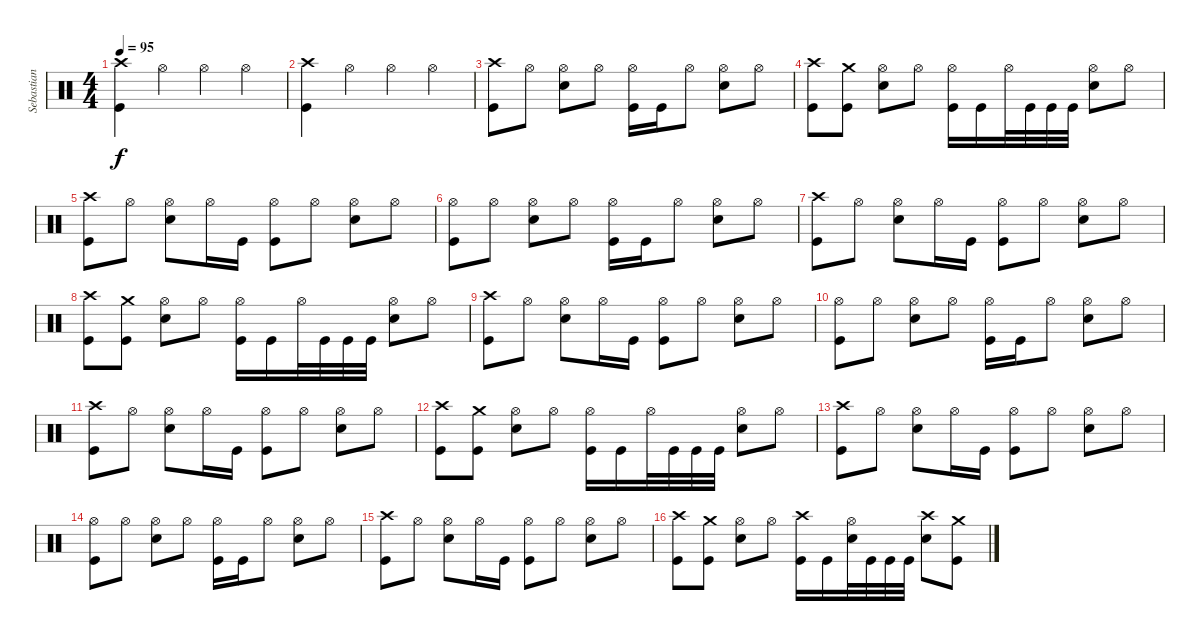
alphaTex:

\track ("Sebastian" "Sebastian") {instrument percussion}
\staff {score}
\articulation defaults
\ts (4 4)
\tempo 95
\clef neutral
\ks c
("Kick (hit)" "Crash high (hit)").4{dy f} "Hi-Hat (open)".4 "Hi-Hat (open)".4 "Hi-Hat (open)".4 |
("Kick (hit)" "Crash high (hit)").4 "Hi-Hat (open)".4 "Hi-Hat (open)".4 "Hi-Hat (open)".4 |
("Kick (hit)" "Crash high (hit)").8 "Hi-Hat (open)".8 ("Snare (hit) 2" "Hi-Hat (open)").8 "Hi-Hat (open)".8 ("Kick (hit)" "Hi-Hat (open)").16 "Kick (hit)".16 "Hi-Hat (open)".8 ("Snare (hit) 2" "Hi-Hat (open)").8 "Hi-Hat (open)".8 |
("Kick (hit)" "Crash high (hit)").8 ("Kick (hit)" "Crash medium (hit)").8 ("Snare (hit) 2" "Hi-Hat (open)").8 "Hi-Hat (open)".8 ("Kick (hit)" "Hi-Hat (open)").16 "Kick (hit)".16 "Hi-Hat (open)".32 "Kick (hit)".32 "Kick (hit)".32 "Kick (hit)".32 ("Snare (hit) 2" "Hi-Hat (open)").8 "Hi-Hat (open)".8 |
("Kick (hit)" "Crash high (hit)").8 "Hi-Hat (open)".8 ("Snare (hit) 2" "Hi-Hat (open)").8 "Hi-Hat (open)".16 "Kick (hit)".16 ("Kick (hit)" "Hi-Hat (open)").8 "Hi-Hat (open)".8 ("Snare (hit) 2" "Hi-Hat (open)").8 "Hi-Hat (open)".8 |
("Kick (hit)" "Hi-Hat (open)").8 "Hi-Hat (open)".8 ("Snare (hit) 2" "Hi-Hat (open)").8 "Hi-Hat (open)".8 ("Kick (hit)" "Hi-Hat (open)").16 "Kick (hit)".16 "Hi-Hat (open)".8 ("Snare (hit) 2" "Hi-Hat (open)").8 "Hi-Hat (open)".8 |
("Kick (hit)" "Crash high (hit)").8 "Hi-Hat (open)".8 ("Snare (hit) 2" "Hi-Hat (open)").8 "Hi-Hat (open)".16 "Kick (hit)".16 ("Kick (hit)" "Hi-Hat (open)").8 "Hi-Hat (open)".8 ("Snare (hit) 2" "Hi-Hat (open)").8 "Hi-Hat (open)".8 |
("Kick (hit)" "Crash high (hit)").8 ("Kick (hit)" "Crash medium (hit)").8 ("Snare (hit) 2" "Hi-Hat (open)").8 "Hi-Hat (open)".8 ("Kick (hit)" "Hi-Hat (open)").16 "Kick (hit)".16 "Hi-Hat (open)".32 "Kick (hit)".32 "Kick (hit)".32 "Kick (hit)".32 ("Snare (hit) 2" "Hi-Hat (open)").8 "Hi-Hat (open)".8 |
("Kick (hit)" "Crash high (hit)").8 "Hi-Hat (open)".8 ("Snare (hit) 2" "Hi-Hat (open)").8 "Hi-Hat (open)".16 "Kick (hit)".16 ("Kick (hit)" "Hi-Hat (open)").8 "Hi-Hat (open)".8 ("Snare (hit) 2" "Hi-Hat (open)").8 "Hi-Hat (open)".8 |
("Kick (hit)" "Hi-Hat (open)").8 "Hi-Hat (open)".8 ("Snare (hit) 2" "Hi-Hat (open)").8 "Hi-Hat (open)".8 ("Kick (hit)" "Hi-Hat (open)").16 "Kick (hit)".16 "Hi-Hat (open)".8 ("Snare (hit) 2" "Hi-Hat (open)").8 "Hi-Hat (open)".8 |
("Kick (hit)" "Crash high (hit)").8 "Hi-Hat (open)".8 ("Snare (hit) 2" "Hi-Hat (open)").8 "Hi-Hat (open)".16 "Kick (hit)".16 ("Kick (hit)" "Hi-Hat (open)").8 "Hi-Hat (open)".8 ("Snare (hit) 2" "Hi-Hat (open)").8 "Hi-Hat (open)".8 |
("Kick (hit)" "Crash high (hit)").8 ("Kick (hit)" "Crash medium (hit)").8 ("Snare (hit) 2" "Hi-Hat (open)").8 "Hi-Hat (open)".8 ("Kick (hit)" "Hi-Hat (open)").16 "Kick (hit)".16 "Hi-Hat (open)".32 "Kick (hit)".32 "Kick (hit)".32 "Kick (hit)".32 ("Snare (hit) 2" "Hi-Hat (open)").8 "Hi-Hat (open)".8 |
("Kick (hit)" "Crash high (hit)").8 "Hi-Hat (open)".8 ("Snare (hit) 2" "Hi-Hat (open)").8 "Hi-Hat (open)".16 "Kick (hit)".16 ("Kick (hit)" "Hi-Hat (open)").8 "Hi-Hat (open)".8 ("Snare (hit) 2" "Hi-Hat (open)").8 "Hi-Hat (open)".8 |
("Kick (hit)" "Hi-Hat (open)").8 "Hi-Hat (open)".8 ("Snare (hit) 2" "Hi-Hat (open)").8 "Hi-Hat (open)".8 ("Kick (hit)" "Hi-Hat (open)").16 "Kick (hit)".16 "Hi-Hat (open)".8 ("Snare (hit) 2" "Hi-Hat (open)").8 "Hi-Hat (open)".8 |
("Kick (hit)" "Crash high (hit)").8 "Hi-Hat (open)".8 ("Snare (hit) 2" "Hi-Hat (open)").8 "Hi-Hat (open)".16 "Kick (hit)".16 ("Kick (hit)" "Hi-Hat (open)").8 "Hi-Hat (open)".8 ("Snare (hit) 2" "Hi-Hat (open)").8 "Hi-Hat (open)".8 |
("Kick (hit)" "Crash high (hit)").8 ("Kick (hit)" "Crash medium (hit)").8 ("Snare (hit) 2" "Hi-Hat (open)").8 "Hi-Hat (open)".8 ("Kick (hit)" "Crash high (hit)").16 "Kick (hit)".16 ("Snare (hit) 2" "Hi-Hat (open)").32 "Kick (hit)".32 "Kick (hit)".32 "Kick (hit)".32 ("Snare (hit) 2" "Crash high (hit)").8 ("Kick (hit)" "Crash medium (hit)").8
